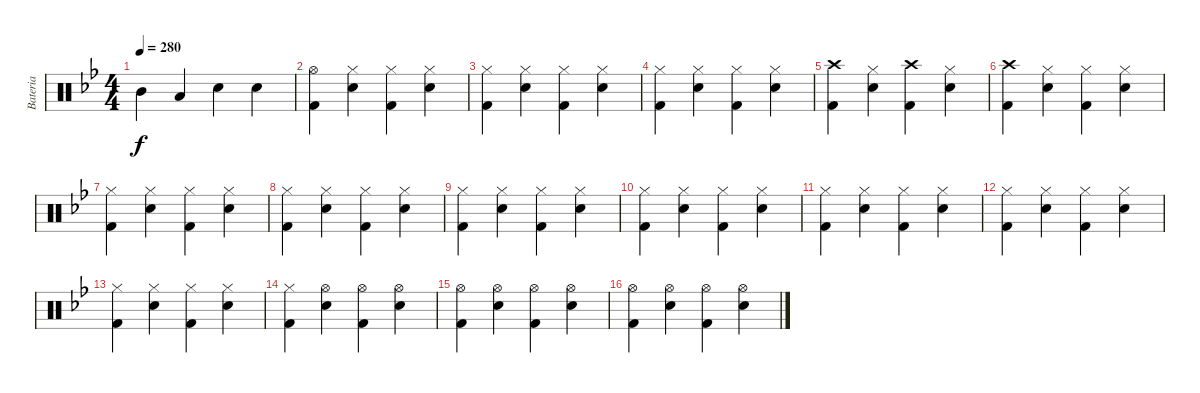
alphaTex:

\track ("Bateria" "Bateria") {instrument percussion}
\staff {score}
\articulation defaults
\ts (4 4)
\tempo 280
\clef neutral
\ks bb "Mid Tom (hit)".4{dy f} "Low Tom (hit)".4 "Electric Snare (hit)".4 "Electric Snare (hit)".4
|
("Hi-Hat (open)" "Kick (hit) 2").4 ("Hi-Hat (closed)" "Electric Snare (hit)").4 ("Hi-Hat (closed)" "Kick (hit) 2").4 ("Hi-Hat (closed)" "Electric Snare (hit)").4 |
("Hi-Hat (closed)" "Kick (hit) 2").4 ("Hi-Hat (closed)" "Electric Snare (hit)").4 ("Hi-Hat (closed)" "Kick (hit) 2").4 ("Hi-Hat (closed)" "Electric Snare (hit)").4 |
("Hi-Hat (closed)" "Kick (hit) 2").4 ("Hi-Hat (closed)" "Electric Snare (hit)").4 ("Hi-Hat (closed)" "Kick (hit) 2").4 ("Hi-Hat (closed)" "Electric Snare (hit)").4 |
("Crash high (hit)" "Kick (hit) 2").4 ("Hi-Hat (closed)" "Electric Snare (hit)").4 ("Crash high (hit)" "Kick (hit) 2").4 ("Hi-Hat (closed)" "Electric Snare (hit)").4 |
("Crash high (hit)" "Kick (hit) 2").4 ("Hi-Hat (closed)" "Electric Snare (hit)").4 ("Hi-Hat (closed)" "Kick (hit) 2").4 ("Hi-Hat (closed)" "Electric Snare (hit)").4 |
("Hi-Hat (closed)" "Kick (hit) 2").4 ("Hi-Hat (closed)" "Electric Snare (hit)").4 ("Hi-Hat (closed)" "Kick (hit) 2").4 ("Hi-Hat (closed)" "Electric Snare (hit)").4 |
("Hi-Hat (closed)" "Kick (hit) 2").4 ("Hi-Hat (closed)" "Electric Snare (hit)").4 ("Hi-Hat (closed)" "Kick (hit) 2").4 ("Hi-Hat (closed)" "Electric Snare (hit)").4 |
("Hi-Hat (closed)" "Kick (hit) 2").4 ("Hi-Hat (closed)" "Electric Snare (hit)").4 ("Hi-Hat (closed)" "Kick (hit) 2").4 ("Hi-Hat (closed)" "Electric Snare (hit)").4 |
("Hi-Hat (closed)" "Kick (hit) 2").4 ("Hi-Hat (closed)" "Electric Snare (hit)").4 ("Hi-Hat (closed)" "Kick (hit) 2").4 ("Hi-Hat (closed)" "Electric Snare (hit)").4 |
("Hi-Hat (closed)" "Kick (hit) 2").4 ("Hi-Hat (closed)" "Electric Snare (hit)").4 ("Hi-Hat (closed)" "Kick (hit) 2").4 ("Hi-Hat (closed)" "Electric Snare (hit)").4 |
("Hi-Hat (closed)" "Kick (hit) 2").4 ("Hi-Hat (closed)" "Electric Snare (hit)").4 ("Hi-Hat (closed)" "Kick (hit) 2").4 ("Hi-Hat (closed)" "Electric Snare (hit)").4 |
("Hi-Hat (closed)" "Kick (hit) 2").4 ("Hi-Hat (closed)" "Electric Snare (hit)").4 ("Hi-Hat (closed)" "Kick (hit) 2").4 ("Hi-Hat (closed)" "Electric Snare (hit)").4 |
("Hi-Hat (closed)" "Kick (hit) 2").4 ("Hi-Hat (open)" "Electric Snare (hit)").4 ("Hi-Hat (open)" "Kick (hit) 2").4 ("Hi-Hat (open)" "Electric Snare (hit)").4 |
("Hi-Hat (open)" "Kick (hit) 2").4 ("Hi-Hat (open)" "Electric Snare (hit)").4 ("Hi-Hat (open)" "Kick (hit) 2").4 ("Hi-Hat (open)" "Electric Snare (hit)").4 |
("Hi-Hat (open)" "Kick (hit) 2").4 ("Hi-Hat (open)" "Electric Snare (hit)").4 ("Hi-Hat (open)" "Kick (hit) 2").4 ("Hi-Hat (open)" "Electric Snare (hit)").4
